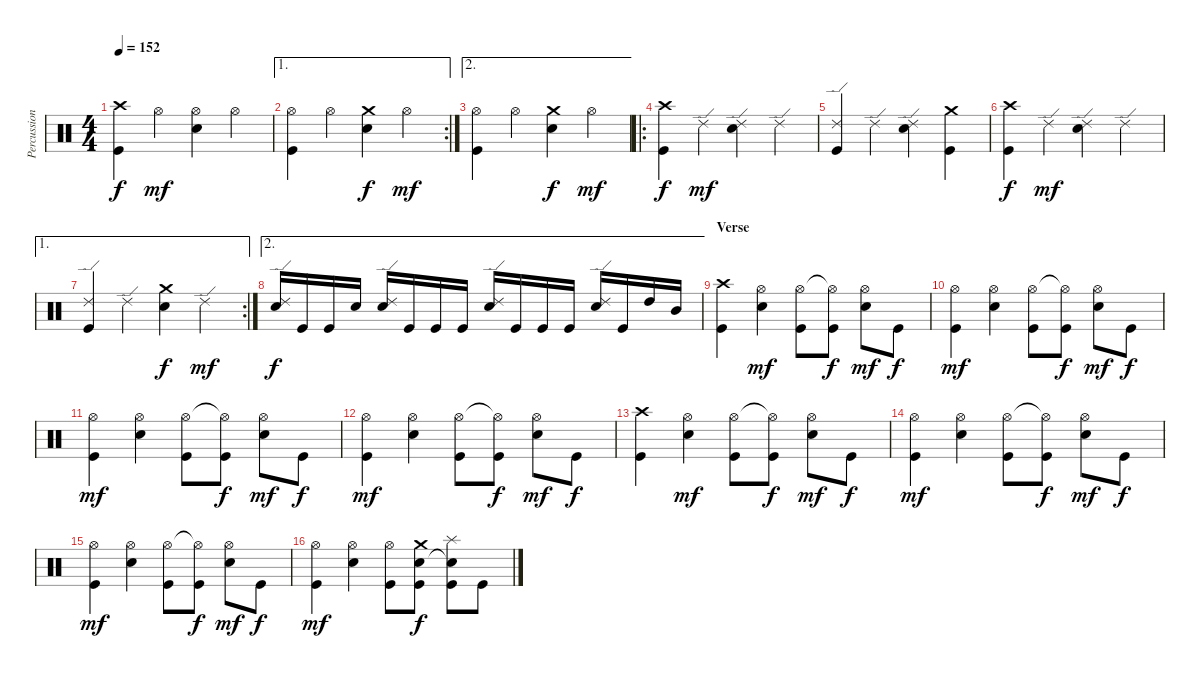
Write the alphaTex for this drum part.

\track ("Percussion" "Percussion") {instrument percussion}
\staff {score}
\articulation defaults
\ts (4 4)
\tempo 152
\clef neutral
\ks c
("Crash high (hit)" "Kick (hit)").4{dy f} "Hi-Hat (open)".4{dy mf} ("Hi-Hat (open)" "Snare (hit) 2").4 "Hi-Hat (open)".4 |
\ae 1
\rc 2
("Hi-Hat (open)" "Kick (hit)").4 "Hi-Hat (open)".4 ("Crash medium (hit)" "Snare (hit) 2").4{dy f} "Hi-Hat (open)".4{dy mf} |
\ae 2
("Hi-Hat (open)" "Kick (hit)").4 "Hi-Hat (open)".4 ("Crash medium (hit)" "Snare (hit) 2").4{dy f} "Hi-Hat (open)".4{dy mf} |
\ro
("Crash high (hit)" "Kick (hit)").4{dy f} "Ride (edge) 2".4{dy mf} ("Ride (edge) 2" "Snare (hit) 2").4 "Ride (edge) 2".4 |
("Ride (edge) 2" "Kick (hit)").4 "Ride (edge) 2".4 ("Ride (edge) 2" "Snare (hit) 2").4 ("Crash medium (hit)" "Kick (hit)").4 |
("Crash high (hit)" "Kick (hit)").4{dy f} "Ride (edge) 2".4{dy mf} ("Ride (edge) 2" "Snare (hit) 2").4 "Ride (edge) 2".4 |
\ae 1
\rc 2
("Ride (edge) 2" "Kick (hit)").4 "Ride (edge) 2".4 ("Crash medium (hit)" "Snare (hit) 2").4{dy f} "Ride (edge) 2".4{dy mf} |
\ae 2
("Ride (edge) 2" "Snare (hit) 2").16{dy f} "Kick (hit)".16 "Kick (hit)".16 "Snare (hit) 2".16 ("Ride (edge) 2" "Snare (hit) 2").16 "Kick (hit)".16 "Kick (hit)".16 "Kick (hit)".16 ("Ride (edge) 2" "Snare (hit) 2").16 "Kick (hit)".16 "Kick (hit)".16 "Kick (hit)".16 ("Ride (edge) 2" "Snare (hit) 2").16 "Kick (hit)".16 "High Tom (hit)".16 "Mid Tom (hit)".16 |
\section ("" "Verse")
("Crash high (hit)" "Kick (hit)").4 ("Hi-Hat (open)" "Snare (hit) 2").4{dy mf} ("Hi-Hat (open)" "Kick (hit)").8 ("Hi-Hat (open)"{t} "Kick (hit)").8{dy f} ("Hi-Hat (open)" "Snare (hit) 2").8{dy mf} "Kick (hit)".8{dy f} |
("Hi-Hat (open)" "Kick (hit)").4{dy mf} ("Hi-Hat (open)" "Snare (hit) 2").4 ("Hi-Hat (open)" "Kick (hit)").8 ("Hi-Hat (open)"{t} "Kick (hit)").8{dy f} ("Hi-Hat (open)" "Snare (hit) 2").8{dy mf} "Kick (hit)".8{dy f} |
("Hi-Hat (open)" "Kick (hit)").4{dy mf} ("Hi-Hat (open)" "Snare (hit) 2").4 ("Hi-Hat (open)" "Kick (hit)").8 ("Hi-Hat (open)"{t} "Kick (hit)").8{dy f} ("Hi-Hat (open)" "Snare (hit) 2").8{dy mf} "Kick (hit)".8{dy f} |
("Hi-Hat (open)" "Kick (hit)").4{dy mf} ("Hi-Hat (open)" "Snare (hit) 2").4 ("Hi-Hat (open)" "Kick (hit)").8 ("Hi-Hat (open)"{t} "Kick (hit)").8{dy f} ("Hi-Hat (open)" "Snare (hit) 2").8{dy mf} "Kick (hit)".8{dy f} |
("Crash high (hit)" "Kick (hit)").4 ("Hi-Hat (open)" "Snare (hit) 2").4{dy mf} ("Hi-Hat (open)" "Kick (hit)").8 ("Hi-Hat (open)"{t} "Kick (hit)").8{dy f} ("Hi-Hat (open)" "Snare (hit) 2").8{dy mf} "Kick (hit)".8{dy f} |
("Hi-Hat (open)" "Kick (hit)").4{dy mf} ("Hi-Hat (open)" "Snare (hit) 2").4 ("Hi-Hat (open)" "Kick (hit)").8 ("Hi-Hat (open)"{t} "Kick (hit)").8{dy f} ("Hi-Hat (open)" "Snare (hit) 2").8{dy mf} "Kick (hit)".8{dy f} |
("Hi-Hat (open)" "Kick (hit)").4{dy mf} ("Hi-Hat (open)" "Snare (hit) 2").4 ("Hi-Hat (open)" "Kick (hit)").8 ("Hi-Hat (open)"{t} "Kick (hit)").8{dy f} ("Hi-Hat (open)" "Snare (hit) 2").8{dy mf} "Kick (hit)".8{dy f} |
("Hi-Hat (open)" "Kick (hit)").4{dy mf} ("Hi-Hat (open)" "Snare (hit) 2").4 ("Hi-Hat (open)" "Kick (hit)").8 ("Crash medium (hit)" "Snare (hit) 2" "Kick (hit)").8{dy f} ("Splash (hit)" "Snare (hit) 2"{t} "Kick (hit)").8 "Kick (hit)".8
